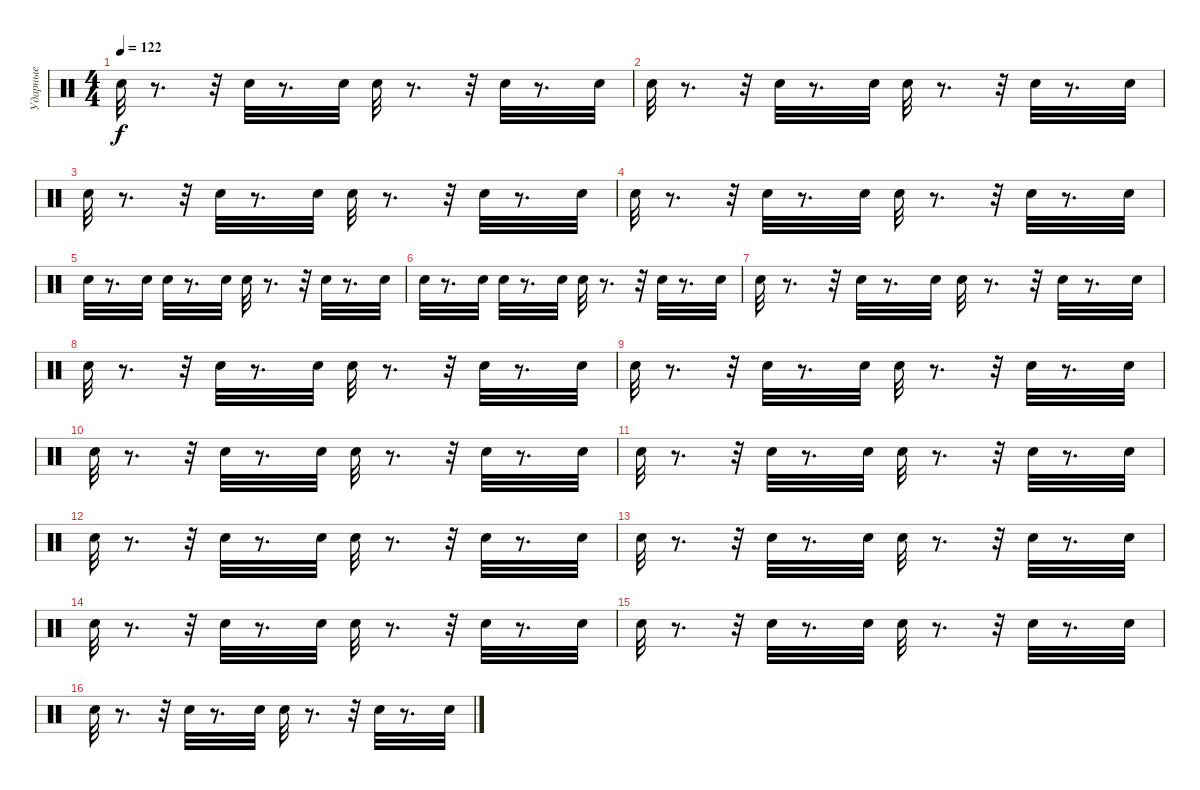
\track ("Ударные" "Ударные") {instrument percussion}
\staff {score}
\articulation defaults
\ts (4 4)
\tempo 122
\clef neutral
\ks c "Snare (hit) 2".32{dy f}
r.8{d} r.32 "Snare (hit) 2".32 r.8{d} "Snare (hit) 2".32 "Snare (hit) 2".32 r.8{d} r.32 "Snare (hit) 2".32 r.8{d} "Snare (hit) 2".32 |
"Snare (hit) 2".32 r.8{d} r.32 "Snare (hit) 2".32 r.8{d} "Snare (hit) 2".32 "Snare (hit) 2".32 r.8{d} r.32 "Snare (hit) 2".32 r.8{d} "Snare (hit) 2".32 |
"Snare (hit) 2".32 r.8{d} r.32 "Snare (hit) 2".32 r.8{d} "Snare (hit) 2".32 "Snare (hit) 2".32 r.8{d} r.32 "Snare (hit) 2".32 r.8{d} "Snare (hit) 2".32 |
"Snare (hit) 2".32 r.8{d} r.32 "Snare (hit) 2".32 r.8{d} "Snare (hit) 2".32 "Snare (hit) 2".32 r.8{d} r.32 "Snare (hit) 2".32 r.8{d} "Snare (hit) 2".32 |
"Snare (hit) 2".32 r.8{d} "Snare (hit) 2".32 "Snare (hit) 2".32 r.8{d} "Snare (hit) 2".32 "Snare (hit) 2".32 r.8{d} r.32 "Snare (hit) 2".32 r.8{d} "Snare (hit) 2".32 |
"Snare (hit) 2".32 r.8{d} "Snare (hit) 2".32 "Snare (hit) 2".32 r.8{d} "Snare (hit) 2".32 "Snare (hit) 2".32 r.8{d} r.32 "Snare (hit) 2".32 r.8{d} "Snare (hit) 2".32 |
"Snare (hit) 2".32 r.8{d} r.32 "Snare (hit) 2".32 r.8{d} "Snare (hit) 2".32 "Snare (hit) 2".32 r.8{d} r.32 "Snare (hit) 2".32 r.8{d} "Snare (hit) 2".32 |
"Snare (hit) 2".32 r.8{d} r.32 "Snare (hit) 2".32 r.8{d} "Snare (hit) 2".32 "Snare (hit) 2".32 r.8{d} r.32 "Snare (hit) 2".32 r.8{d} "Snare (hit) 2".32 |
"Snare (hit) 2".32 r.8{d} r.32 "Snare (hit) 2".32 r.8{d} "Snare (hit) 2".32 "Snare (hit) 2".32 r.8{d} r.32 "Snare (hit) 2".32 r.8{d} "Snare (hit) 2".32 |
"Snare (hit) 2".32 r.8{d} r.32 "Snare (hit) 2".32 r.8{d} "Snare (hit) 2".32 "Snare (hit) 2".32 r.8{d} r.32 "Snare (hit) 2".32 r.8{d} "Snare (hit) 2".32 |
"Snare (hit) 2".32 r.8{d} r.32 "Snare (hit) 2".32 r.8{d} "Snare (hit) 2".32 "Snare (hit) 2".32 r.8{d} r.32 "Snare (hit) 2".32 r.8{d} "Snare (hit) 2".32 |
"Snare (hit) 2".32 r.8{d} r.32 "Snare (hit) 2".32 r.8{d} "Snare (hit) 2".32 "Snare (hit) 2".32 r.8{d} r.32 "Snare (hit) 2".32 r.8{d} "Snare (hit) 2".32 |
"Snare (hit) 2".32 r.8{d} r.32 "Snare (hit) 2".32 r.8{d} "Snare (hit) 2".32 "Snare (hit) 2".32 r.8{d} r.32 "Snare (hit) 2".32 r.8{d} "Snare (hit) 2".32 |
"Snare (hit) 2".32 r.8{d} r.32 "Snare (hit) 2".32 r.8{d} "Snare (hit) 2".32 "Snare (hit) 2".32 r.8{d} r.32 "Snare (hit) 2".32 r.8{d} "Snare (hit) 2".32 |
"Snare (hit) 2".32 r.8{d} r.32 "Snare (hit) 2".32 r.8{d} "Snare (hit) 2".32 "Snare (hit) 2".32 r.8{d} r.32 "Snare (hit) 2".32 r.8{d} "Snare (hit) 2".32 |
"Snare (hit) 2".32 r.8{d} r.32 "Snare (hit) 2".32 r.8{d} "Snare (hit) 2".32 "Snare (hit) 2".32 r.8{d} r.32 "Snare (hit) 2".32 r.8{d} "Snare (hit) 2".32
